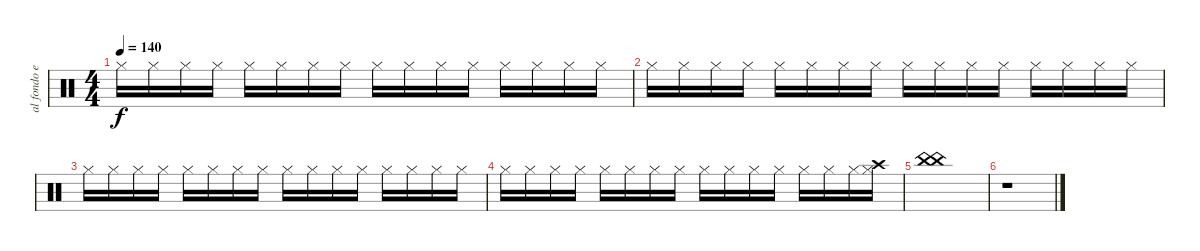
\track ("al fondo en la bateria Mr Pedro Andreu" "al fondo e") {instrument percussion}
\staff {score}
\articulation defaults
\ts (4 4)
\tempo 140
\clef neutral
\ks c "Hi-Hat (closed)".16{dy f} "Hi-Hat (closed)".16 "Hi-Hat (closed)".16 "Hi-Hat (closed)".16 "Hi-Hat (closed)".16 "Hi-Hat (closed)".16 "Hi-Hat (closed)".16 "Hi-Hat (closed)".16 "Hi-Hat (closed)".16 "Hi-Hat (closed)".16 "Hi-Hat (closed)".16 "Hi-Hat (closed)".16 "Hi-Hat (closed)".16 "Hi-Hat (closed)".16 "Hi-Hat (closed)".16 "Hi-Hat (closed)".16
|
"Hi-Hat (closed)".16 "Hi-Hat (closed)".16 "Hi-Hat (closed)".16 "Hi-Hat (closed)".16 "Hi-Hat (closed)".16 "Hi-Hat (closed)".16 "Hi-Hat (closed)".16 "Hi-Hat (closed)".16 "Hi-Hat (closed)".16 "Hi-Hat (closed)".16 "Hi-Hat (closed)".16 "Hi-Hat (closed)".16 "Hi-Hat (closed)".16 "Hi-Hat (closed)".16 "Hi-Hat (closed)".16 "Hi-Hat (closed)".16 |
"Hi-Hat (closed)".16 "Hi-Hat (closed)".16 "Hi-Hat (closed)".16 "Hi-Hat (closed)".16 "Hi-Hat (closed)".16 "Hi-Hat (closed)".16 "Hi-Hat (closed)".16 "Hi-Hat (closed)".16 "Hi-Hat (closed)".16 "Hi-Hat (closed)".16 "Hi-Hat (closed)".16 "Hi-Hat (closed)".16 "Hi-Hat (closed)".16 "Hi-Hat (closed)".16 "Hi-Hat (closed)".16 "Hi-Hat (closed)".16 |
"Hi-Hat (closed)".16 "Hi-Hat (closed)".16 "Hi-Hat (closed)".16 "Hi-Hat (closed)".16 "Hi-Hat (closed)".16 "Hi-Hat (closed)".16 "Hi-Hat (closed)".16 "Hi-Hat (closed)".16 "Hi-Hat (closed)".16 "Hi-Hat (closed)".16 "Hi-Hat (closed)".16 "Hi-Hat (closed)".16 "Hi-Hat (closed)".16 "Hi-Hat (closed)".16 "Hi-Hat (closed)".16 ("Hi-Hat (closed)" "Crash high (hit)").16 |
("China (hit)" "China (hit)").1 |
r.1
